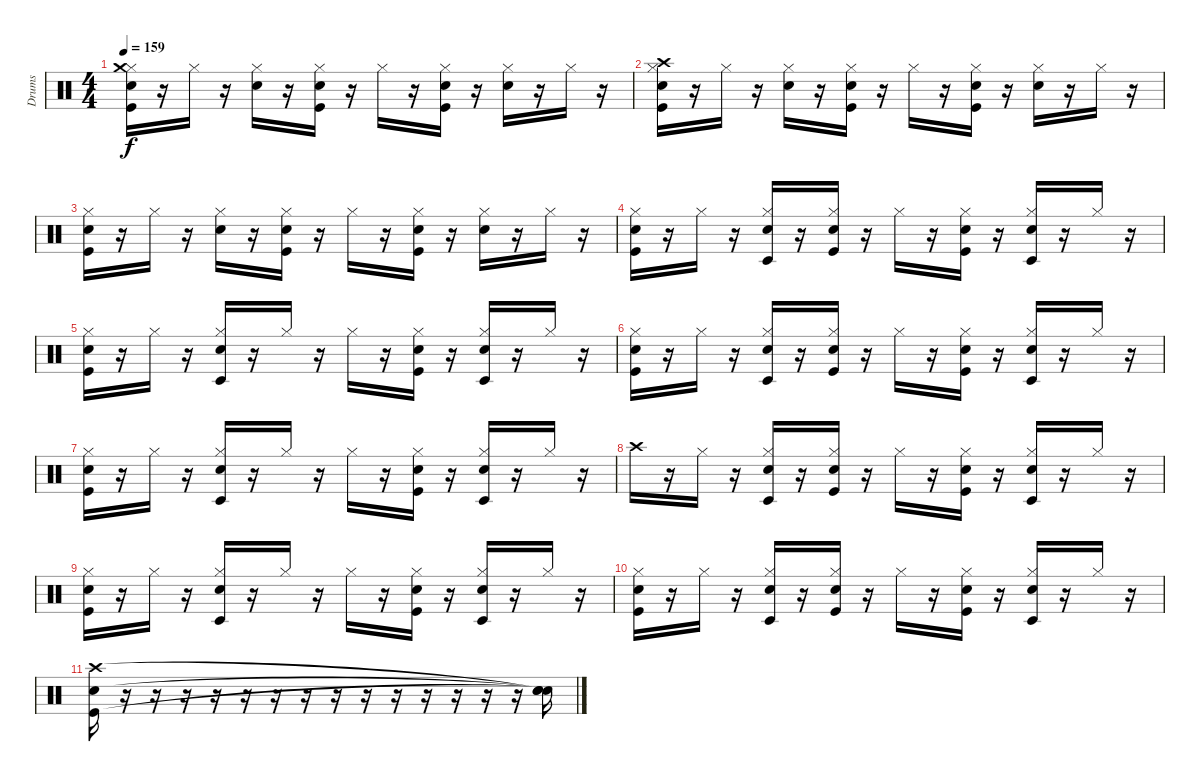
\track ("Drums" "Drums") {instrument percussion}
\staff {score}
\articulation defaults
\ts (4 4)
\tempo 159
\clef neutral
\ks c
("Hi-Hat (closed)" "Crash medium (hit)" "Snare (hit) 2" "Kick (hit)").16{dy f} r.16 "Hi-Hat (closed)".16 r.16 ("Hi-Hat (closed)" "Snare (hit) 2").16 r.16 ("Hi-Hat (closed)" "Snare (hit) 2" "Kick (hit)").16 r.16 "Hi-Hat (closed)".16 r.16 ("Hi-Hat (closed)" "Snare (hit) 2" "Kick (hit)").16 r.16 ("Hi-Hat (closed)" "Snare (hit) 2").16 r.16 "Hi-Hat (closed)".16 r.16 |
("Hi-Hat (closed)" "Crash high (hit)" "Snare (hit) 2" "Kick (hit)").16 r.16 "Hi-Hat (closed)".16 r.16 ("Hi-Hat (closed)" "Snare (hit) 2").16 r.16 ("Hi-Hat (closed)" "Snare (hit) 2" "Kick (hit)").16 r.16 "Hi-Hat (closed)".16 r.16 ("Hi-Hat (closed)" "Snare (hit) 2" "Kick (hit)").16 r.16 ("Hi-Hat (closed)" "Snare (hit) 2").16 r.16 "Hi-Hat (closed)".16 r.16 |
("Hi-Hat (closed)" "Snare (hit) 2" "Kick (hit)").16 r.16 "Hi-Hat (closed)".16 r.16 ("Hi-Hat (closed)" "Snare (hit) 2").16 r.16 ("Hi-Hat (closed)" "Snare (hit) 2" "Kick (hit)").16 r.16 "Hi-Hat (closed)".16 r.16 ("Hi-Hat (closed)" "Snare (hit) 2" "Kick (hit)").16 r.16 ("Hi-Hat (closed)" "Snare (hit) 2").16 r.16 "Hi-Hat (closed)".16 r.16 |
("Hi-Hat (closed)" "Snare (hit) 2" "Kick (hit)").16 r.16 "Hi-Hat (closed)".16 r.16 ("Hi-Hat (closed)" "Timbale low (hit)" "Snare (hit) 2").16 r.16 ("Hi-Hat (closed)" "Snare (hit) 2" "Kick (hit)").16 r.16 "Hi-Hat (closed)".16 r.16 ("Hi-Hat (closed)" "Snare (hit) 2" "Kick (hit)").16 r.16 ("Hi-Hat (closed)" "Timbale low (hit)" "Snare (hit) 2").16 r.16 "Hi-Hat (closed)".16 r.16 |
("Hi-Hat (closed)" "Snare (hit) 2" "Kick (hit)").16 r.16 "Hi-Hat (closed)".16 r.16 ("Hi-Hat (closed)" "Timbale low (hit)" "Snare (hit) 2").16 r.16 "Hi-Hat (closed)".16 r.16 "Hi-Hat (closed)".16 r.16 ("Hi-Hat (closed)" "Snare (hit) 2" "Kick (hit)").16 r.16 ("Hi-Hat (closed)" "Timbale low (hit)" "Snare (hit) 2").16 r.16 "Hi-Hat (closed)".16 r.16 |
("Hi-Hat (closed)" "Snare (hit) 2" "Kick (hit)").16 r.16 "Hi-Hat (closed)".16 r.16 ("Hi-Hat (closed)" "Timbale low (hit)" "Snare (hit) 2").16 r.16 ("Hi-Hat (closed)" "Snare (hit) 2" "Kick (hit)").16 r.16 "Hi-Hat (closed)".16 r.16 ("Hi-Hat (closed)" "Snare (hit) 2" "Kick (hit)").16 r.16 ("Hi-Hat (closed)" "Timbale low (hit)" "Snare (hit) 2").16 r.16 "Hi-Hat (closed)".16 r.16 |
("Hi-Hat (closed)" "Snare (hit) 2" "Kick (hit)").16 r.16 "Hi-Hat (closed)".16 r.16 ("Hi-Hat (closed)" "Timbale low (hit)" "Snare (hit) 2").16 r.16 "Hi-Hat (closed)".16 r.16 "Hi-Hat (closed)".16 r.16 ("Hi-Hat (closed)" "Snare (hit) 2" "Kick (hit)").16 r.16 ("Hi-Hat (closed)" "Timbale low (hit)" "Snare (hit) 2").16 r.16 "Hi-Hat (closed)".16 r.16 |
"Crash high (hit)".16 r.16 "Hi-Hat (closed)".16 r.16 ("Hi-Hat (closed)" "Timbale low (hit)" "Snare (hit) 2").16 r.16 ("Hi-Hat (closed)" "Snare (hit) 2" "Kick (hit)").16 r.16 "Hi-Hat (closed)".16 r.16 ("Hi-Hat (closed)" "Snare (hit) 2" "Kick (hit)").16 r.16 ("Hi-Hat (closed)" "Timbale low (hit)" "Snare (hit) 2").16 r.16 "Hi-Hat (closed)".16 r.16 |
("Hi-Hat (closed)" "Snare (hit) 2" "Kick (hit)").16 r.16 "Hi-Hat (closed)".16 r.16 ("Hi-Hat (closed)" "Timbale low (hit)" "Snare (hit) 2").16 r.16 "Hi-Hat (closed)".16 r.16 "Hi-Hat (closed)".16 r.16 ("Hi-Hat (closed)" "Snare (hit) 2" "Kick (hit)").16 r.16 ("Hi-Hat (closed)" "Timbale low (hit)" "Snare (hit) 2").16 r.16 "Hi-Hat (closed)".16 r.16 |
("Hi-Hat (closed)" "Snare (hit) 2" "Kick (hit)").16 r.16 "Hi-Hat (closed)".16 r.16 ("Hi-Hat (closed)" "Timbale low (hit)" "Snare (hit) 2").16 r.16 ("Hi-Hat (closed)" "Snare (hit) 2" "Kick (hit)").16 r.16 "Hi-Hat (closed)".16 r.16 ("Hi-Hat (closed)" "Snare (hit) 2" "Kick (hit)").16 r.16 ("Hi-Hat (closed)" "Timbale low (hit)" "Snare (hit) 2").16 r.16 "Hi-Hat (closed)".16 r.16 |
("Crash high (hit)" "Snare (hit) 2" "Kick (hit)").16 r.16 r.16 r.16 r.16 r.16 r.16 r.16 r.16 r.16 r.16 r.16 r.16 r.16 r.16 ("Snare (hit)"{t} "Snare (hit)"{t} "Snare (hit)"{t}).16
